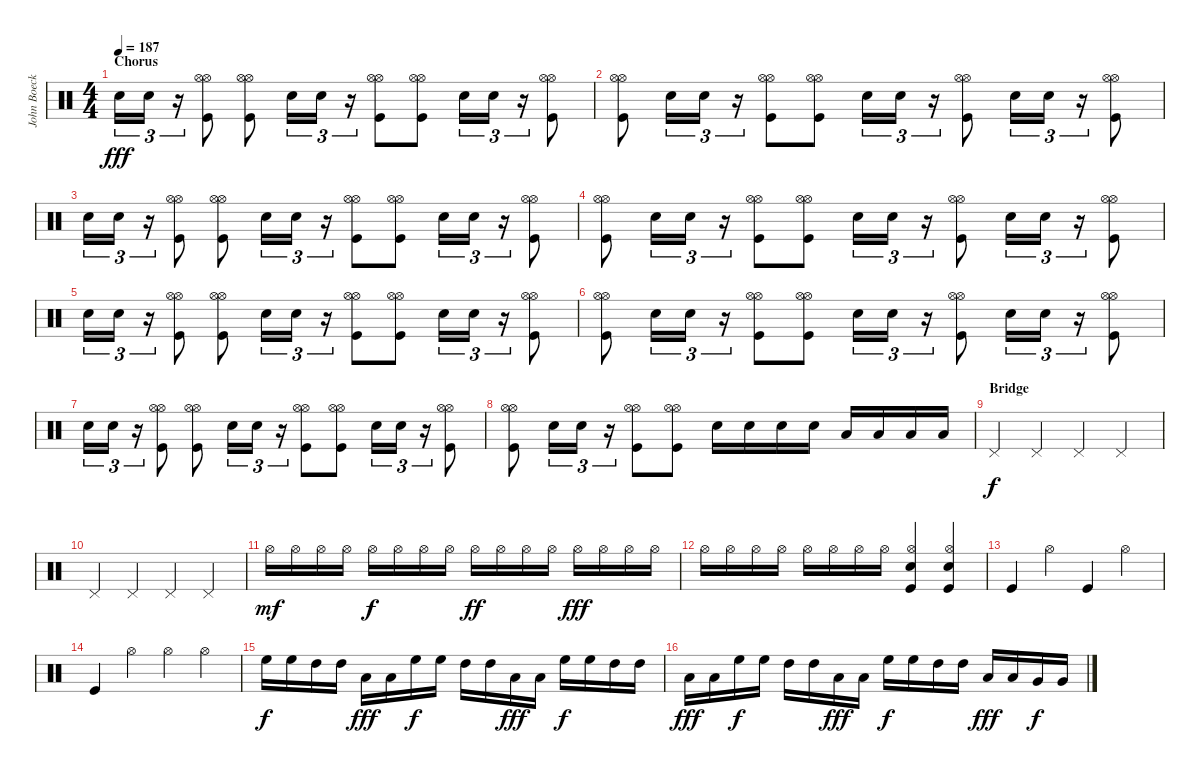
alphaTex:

\track ("John Boecklin - Drums" "John Boeck") {instrument percussion}
\staff {score}
\articulation defaults
\ts (4 4)
\section ("" "Chorus")
\tempo 187
\clef neutral
\ks c "Snare (hit) 2".16{tu (3 2) dy fff} "Snare (hit) 2".16{tu (3 2)}
r.16{tu (3 2)} ("Hi-Hat (open)" "Hi-Hat (open)" "Kick (hit)").8 ("Hi-Hat (open)" "Hi-Hat (open)" "Kick (hit)").8 "Snare (hit) 2".16{tu (3 2)} "Snare (hit) 2".16{tu (3 2)} r.16{tu (3 2)} ("Hi-Hat (open)" "Hi-Hat (open)" "Kick (hit)").8 ("Hi-Hat (open)" "Hi-Hat (open)" "Kick (hit)").8 "Snare (hit) 2".16{tu (3 2)} "Snare (hit) 2".16{tu (3 2)} r.16{tu (3 2)} ("Hi-Hat (open)" "Hi-Hat (open)" "Kick (hit)").8 |
("Hi-Hat (open)" "Hi-Hat (open)" "Kick (hit)").8 "Snare (hit) 2".16{tu (3 2)} "Snare (hit) 2".16{tu (3 2)} r.16{tu (3 2)} ("Hi-Hat (open)" "Hi-Hat (open)" "Kick (hit)").8 ("Hi-Hat (open)" "Hi-Hat (open)" "Kick (hit)").8 "Snare (hit) 2".16{tu (3 2)} "Snare (hit) 2".16{tu (3 2)} r.16{tu (3 2)} ("Hi-Hat (open)" "Hi-Hat (open)" "Kick (hit)").8 "Snare (hit) 2".16{tu (3 2)} "Snare (hit) 2".16{tu (3 2)} r.16{tu (3 2)} ("Hi-Hat (open)" "Hi-Hat (open)" "Kick (hit)").8 |
"Snare (hit) 2".16{tu (3 2)} "Snare (hit) 2".16{tu (3 2)} r.16{tu (3 2)} ("Hi-Hat (open)" "Hi-Hat (open)" "Kick (hit)").8 ("Hi-Hat (open)" "Hi-Hat (open)" "Kick (hit)").8 "Snare (hit) 2".16{tu (3 2)} "Snare (hit) 2".16{tu (3 2)} r.16{tu (3 2)} ("Hi-Hat (open)" "Hi-Hat (open)" "Kick (hit)").8 ("Hi-Hat (open)" "Hi-Hat (open)" "Kick (hit)").8 "Snare (hit) 2".16{tu (3 2)} "Snare (hit) 2".16{tu (3 2)} r.16{tu (3 2)} ("Hi-Hat (open)" "Hi-Hat (open)" "Kick (hit)").8 |
("Hi-Hat (open)" "Hi-Hat (open)" "Kick (hit)").8 "Snare (hit) 2".16{tu (3 2)} "Snare (hit) 2".16{tu (3 2)} r.16{tu (3 2)} ("Hi-Hat (open)" "Hi-Hat (open)" "Kick (hit)").8 ("Hi-Hat (open)" "Hi-Hat (open)" "Kick (hit)").8 "Snare (hit) 2".16{tu (3 2)} "Snare (hit) 2".16{tu (3 2)} r.16{tu (3 2)} ("Hi-Hat (open)" "Hi-Hat (open)" "Kick (hit)").8 "Snare (hit) 2".16{tu (3 2)} "Snare (hit) 2".16{tu (3 2)} r.16{tu (3 2)} ("Hi-Hat (open)" "Hi-Hat (open)" "Kick (hit)").8 |
"Snare (hit) 2".16{tu (3 2)} "Snare (hit) 2".16{tu (3 2)} r.16{tu (3 2)} ("Hi-Hat (open)" "Hi-Hat (open)" "Kick (hit)").8 ("Hi-Hat (open)" "Hi-Hat (open)" "Kick (hit)").8 "Snare (hit) 2".16{tu (3 2)} "Snare (hit) 2".16{tu (3 2)} r.16{tu (3 2)} ("Hi-Hat (open)" "Hi-Hat (open)" "Kick (hit)").8 ("Hi-Hat (open)" "Hi-Hat (open)" "Kick (hit)").8 "Snare (hit) 2".16{tu (3 2)} "Snare (hit) 2".16{tu (3 2)} r.16{tu (3 2)} ("Hi-Hat (open)" "Hi-Hat (open)" "Kick (hit)").8 |
("Hi-Hat (open)" "Hi-Hat (open)" "Kick (hit)").8 "Snare (hit) 2".16{tu (3 2)} "Snare (hit) 2".16{tu (3 2)} r.16{tu (3 2)} ("Hi-Hat (open)" "Hi-Hat (open)" "Kick (hit)").8 ("Hi-Hat (open)" "Hi-Hat (open)" "Kick (hit)").8 "Snare (hit) 2".16{tu (3 2)} "Snare (hit) 2".16{tu (3 2)} r.16{tu (3 2)} ("Hi-Hat (open)" "Hi-Hat (open)" "Kick (hit)").8 "Snare (hit) 2".16{tu (3 2)} "Snare (hit) 2".16{tu (3 2)} r.16{tu (3 2)} ("Hi-Hat (open)" "Hi-Hat (open)" "Kick (hit)").8 |
"Snare (hit) 2".16{tu (3 2)} "Snare (hit) 2".16{tu (3 2)} r.16{tu (3 2)} ("Hi-Hat (open)" "Hi-Hat (open)" "Kick (hit)").8 ("Hi-Hat (open)" "Hi-Hat (open)" "Kick (hit)").8 "Snare (hit) 2".16{tu (3 2)} "Snare (hit) 2".16{tu (3 2)} r.16{tu (3 2)} ("Hi-Hat (open)" "Hi-Hat (open)" "Kick (hit)").8 ("Hi-Hat (open)" "Hi-Hat (open)" "Kick (hit)").8 "Snare (hit) 2".16{tu (3 2)} "Snare (hit) 2".16{tu (3 2)} r.16{tu (3 2)} ("Hi-Hat (open)" "Hi-Hat (open)" "Kick (hit)").8 |
("Hi-Hat (open)" "Hi-Hat (open)" "Kick (hit)").8 "Snare (hit) 2".16{tu (3 2)} "Snare (hit) 2".16{tu (3 2)} r.16{tu (3 2)} ("Hi-Hat (open)" "Hi-Hat (open)" "Kick (hit)").8 ("Hi-Hat (open)" "Hi-Hat (open)" "Kick (hit)").8 "Snare (hit) 2".16 "Snare (hit) 2".16 "Snare (hit) 2".16 "Snare (hit) 2".16 "Low Tom (hit)".16 "Low Tom (hit)".16 "Low Tom (hit)".16 "Low Tom (hit)".16 |
\section ("" "Bridge")
"Pedal Hi-Hat (hit)".4{dy f} "Pedal Hi-Hat (hit)".4 "Pedal Hi-Hat (hit)".4 "Pedal Hi-Hat (hit)".4 |
"Pedal Hi-Hat (hit)".4 "Pedal Hi-Hat (hit)".4 "Pedal Hi-Hat (hit)".4 "Pedal Hi-Hat (hit)".4 |
"Hi-Hat (open)".16{dy mf} "Hi-Hat (open)".16 "Hi-Hat (open)".16 "Hi-Hat (open)".16 "Hi-Hat (open)".16{dy f} "Hi-Hat (open)".16 "Hi-Hat (open)".16 "Hi-Hat (open)".16 "Hi-Hat (open)".16{dy ff} "Hi-Hat (open)".16 "Hi-Hat (open)".16 "Hi-Hat (open)".16 "Hi-Hat (open)".16{dy fff} "Hi-Hat (open)".16 "Hi-Hat (open)".16 "Hi-Hat (open)".16 |
"Hi-Hat (open)".16 "Hi-Hat (open)".16 "Hi-Hat (open)".16 "Hi-Hat (open)".16 "Hi-Hat (open)".16 "Hi-Hat (open)".16 "Hi-Hat (open)".16 "Hi-Hat (open)".16 ("Snare (hit) 2" "Hi-Hat (open)" "Kick (hit)").4 ("Snare (hit) 2" "Hi-Hat (open)" "Kick (hit)").4 |
"Kick (hit)".4 "Hi-Hat (open)".4 "Kick (hit)".4 "Hi-Hat (open)".4 |
"Kick (hit)".4 "Hi-Hat (open)".4 "Hi-Hat (open)".4 "Hi-Hat (open)".4 |
"High Floor Tom (hit)".16{dy f} "High Floor Tom (hit)".16 "High Tom (hit)".16 "High Tom (hit)".16 "Low Tom (hit)".16{dy fff} "Low Tom (hit)".16 "High Floor Tom (hit)".16{dy f} "High Floor Tom (hit)".16 "High Tom (hit)".16 "High Tom (hit)".16 "Low Tom (hit)".16{dy fff} "Low Tom (hit)".16 "High Floor Tom (hit)".16{dy f} "High Floor Tom (hit)".16 "High Tom (hit)".16 "High Tom (hit)".16 |
"Low Tom (hit)".16{dy fff} "Low Tom (hit)".16 "High Floor Tom (hit)".16{dy f} "High Floor Tom (hit)".16 "High Tom (hit)".16 "High Tom (hit)".16 "Low Tom (hit)".16{dy fff} "Low Tom (hit)".16 "High Floor Tom (hit)".16{dy f} "High Floor Tom (hit)".16 "High Tom (hit)".16 "High Tom (hit)".16 "Low Tom (hit)".16{dy fff} "Low Tom (hit)".16 "Very Low Tom (hit)".16{dy f} "Very Low Tom (hit)".16
